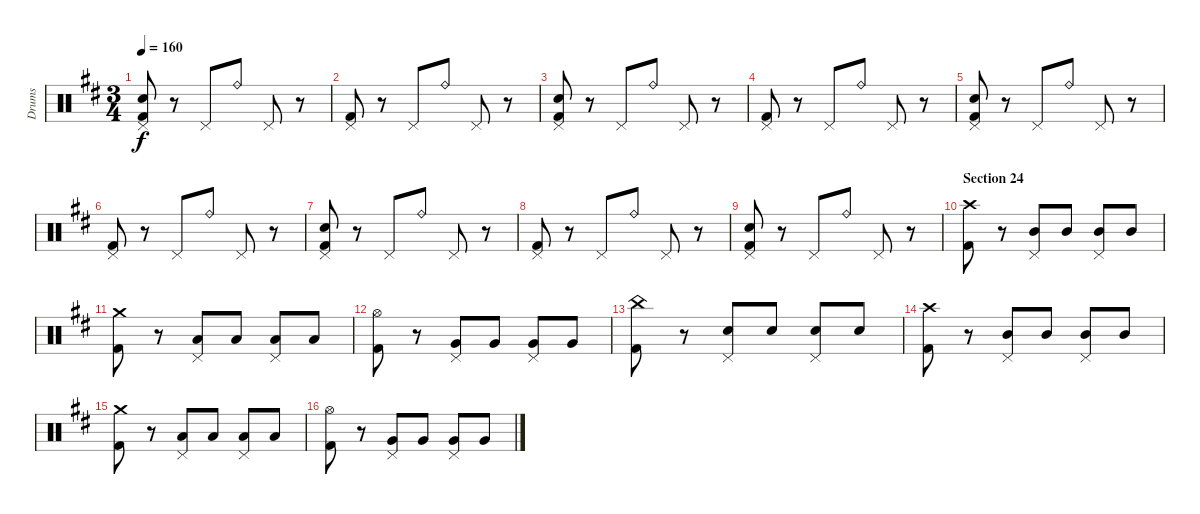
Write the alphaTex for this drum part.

\track ("Drums" "Drums") {instrument percussion}
\staff {score}
\articulation defaults
\ts (3 4)
\tempo 160
\clef neutral
\ks bminor
("Pedal Hi-Hat (hit)" "Snare (hit) 2" "Kick (hit) 2").8{dy f} r.8 "Pedal Hi-Hat (hit)".8 "Ride (bell)".8 "Pedal Hi-Hat (hit)".8 r.8 |
("Pedal Hi-Hat (hit)" "Kick (hit) 2").8 r.8 "Pedal Hi-Hat (hit)".8 "Ride (bell)".8 "Pedal Hi-Hat (hit)".8 r.8 |
("Pedal Hi-Hat (hit)" "Snare (hit) 2" "Kick (hit) 2").8 r.8 "Pedal Hi-Hat (hit)".8 "Ride (bell)".8 "Pedal Hi-Hat (hit)".8 r.8 |
("Pedal Hi-Hat (hit)" "Kick (hit) 2").8 r.8 "Pedal Hi-Hat (hit)".8 "Ride (bell)".8 "Pedal Hi-Hat (hit)".8 r.8 |
("Pedal Hi-Hat (hit)" "Snare (hit) 2" "Kick (hit) 2").8 r.8 "Pedal Hi-Hat (hit)".8 "Ride (bell)".8 "Pedal Hi-Hat (hit)".8 r.8 |
("Pedal Hi-Hat (hit)" "Kick (hit) 2").8 r.8 "Pedal Hi-Hat (hit)".8 "Ride (bell)".8 "Pedal Hi-Hat (hit)".8 r.8 |
("Pedal Hi-Hat (hit)" "Snare (hit) 2" "Kick (hit) 2").8 r.8 "Pedal Hi-Hat (hit)".8 "Ride (bell)".8 "Pedal Hi-Hat (hit)".8 r.8 |
("Pedal Hi-Hat (hit)" "Kick (hit) 2").8 r.8 "Pedal Hi-Hat (hit)".8 "Ride (bell)".8 "Pedal Hi-Hat (hit)".8 r.8 |
("Pedal Hi-Hat (hit)" "Snare (hit) 2" "Kick (hit) 2").8 r.8 "Pedal Hi-Hat (hit)".8 "Ride (bell)".8 "Pedal Hi-Hat (hit)".8 r.8 |
\section ("" "Section 24")
("Crash high (hit)" "Kick (hit) 2").8 r.8 ("Mid Tom (hit)" "Pedal Hi-Hat (hit)").8 "Mid Tom (hit)".8 ("Mid Tom (hit)" "Pedal Hi-Hat (hit)").8 "Mid Tom (hit)".8 |
("Crash medium (hit)" "Kick (hit) 2").8 r.8 ("Pedal Hi-Hat (hit)" "Low Tom (hit)").8 "Low Tom (hit)".8 ("Pedal Hi-Hat (hit)" "Low Tom (hit)").8 "Low Tom (hit)".8 |
("Hi-Hat (open)" "Kick (hit) 2").8 r.8 ("Pedal Hi-Hat (hit)" "Very Low Tom (hit)").8 "Very Low Tom (hit)".8 ("Pedal Hi-Hat (hit)" "Very Low Tom (hit)").8 "Very Low Tom (hit)".8 |
("China (hit)" "Kick (hit) 2").8 r.8 ("Pedal Hi-Hat (hit)" "Snare (hit) 2").8 "Snare (hit) 2".8 ("Pedal Hi-Hat (hit)" "Snare (hit) 2").8 "Snare (hit) 2".8 |
("Crash high (hit)" "Kick (hit) 2").8 r.8 ("Mid Tom (hit)" "Pedal Hi-Hat (hit)").8 "Mid Tom (hit)".8 ("Mid Tom (hit)" "Pedal Hi-Hat (hit)").8 "Mid Tom (hit)".8 |
("Crash medium (hit)" "Kick (hit) 2").8 r.8 ("Pedal Hi-Hat (hit)" "Low Tom (hit)").8 "Low Tom (hit)".8 ("Pedal Hi-Hat (hit)" "Low Tom (hit)").8 "Low Tom (hit)".8 |
("Hi-Hat (open)" "Kick (hit) 2").8 r.8 ("Pedal Hi-Hat (hit)" "Very Low Tom (hit)").8 "Very Low Tom (hit)".8 ("Pedal Hi-Hat (hit)" "Very Low Tom (hit)").8 "Very Low Tom (hit)".8
